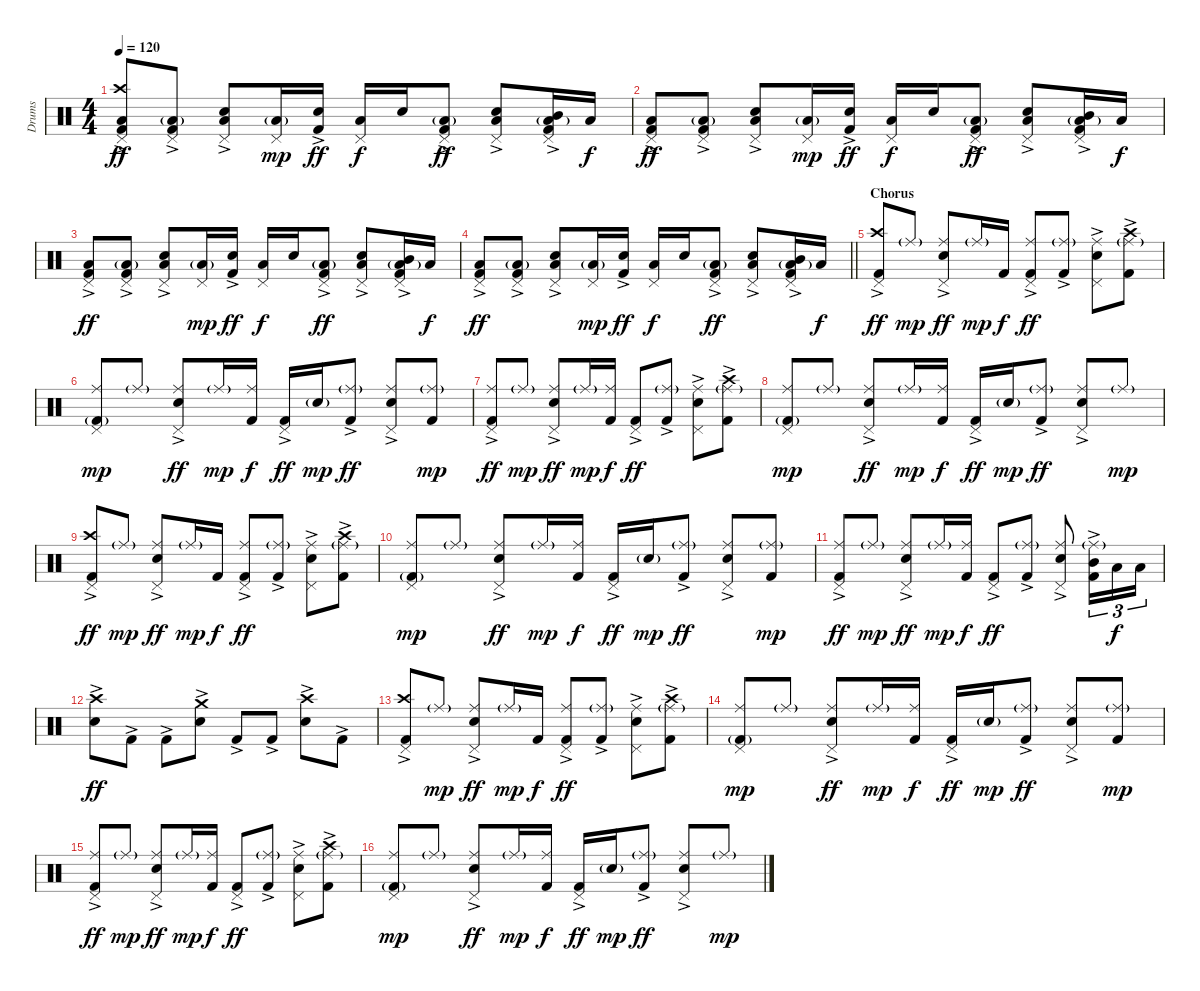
\track ("Drums" "Drums") {instrument percussion}
\staff {score}
\articulation defaults
\ts (4 4)
\tempo 120
\clef neutral
\ks c
("Pedal Hi-Hat (hit)" "Crash high (hit)" "Low Floor Tom (hit)" "Kick (hit) 2"{ac}).8{dy ff} ("Pedal Hi-Hat (hit)" "Low Floor Tom (hit)"{g} "Kick (hit) 2"{ac}).8 ("Pedal Hi-Hat (hit)" "Snare (hit) 2"{ac} "Low Floor Tom (hit)").8 ("Pedal Hi-Hat (hit)" "Low Floor Tom (hit)"{g}).16{dy mp} ("Snare (hit) 2" "Kick (hit) 2"{ac}).16{dy ff} ("Pedal Hi-Hat (hit)" "Low Floor Tom (hit)").16{dy f} "Snare (hit) 2".16 ("Pedal Hi-Hat (hit)" "Low Floor Tom (hit)"{g} "Kick (hit) 2"{ac}).8{dy ff} ("Pedal Hi-Hat (hit)" "Snare (hit) 2"{ac} "Low Floor Tom (hit)").8 ("Pedal Hi-Hat (hit)" "Mid Tom (hit)" "Low Floor Tom (hit)"{g} "Kick (hit) 2"{ac}).16 "Low Tom (hit)".16{dy f} |
("Pedal Hi-Hat (hit)" "Low Floor Tom (hit)" "Kick (hit) 2"{ac}).8{dy ff} ("Pedal Hi-Hat (hit)" "Low Floor Tom (hit)"{g} "Kick (hit) 2"{ac}).8 ("Pedal Hi-Hat (hit)" "Snare (hit) 2"{ac} "Low Floor Tom (hit)").8 ("Pedal Hi-Hat (hit)" "Low Floor Tom (hit)"{g}).16{dy mp} ("Snare (hit) 2" "Kick (hit) 2"{ac}).16{dy ff} ("Pedal Hi-Hat (hit)" "Low Floor Tom (hit)").16{dy f} "Snare (hit) 2".16 ("Pedal Hi-Hat (hit)" "Low Floor Tom (hit)"{g} "Kick (hit) 2"{ac}).8{dy ff} ("Pedal Hi-Hat (hit)" "Snare (hit) 2"{ac} "Low Floor Tom (hit)").8 ("Pedal Hi-Hat (hit)" "Mid Tom (hit)" "Low Floor Tom (hit)"{g} "Kick (hit) 2"{ac}).16 "Low Tom (hit)".16{dy f} |
("Pedal Hi-Hat (hit)" "Low Floor Tom (hit)" "Kick (hit) 2"{ac}).8{dy ff} ("Pedal Hi-Hat (hit)" "Low Floor Tom (hit)"{g} "Kick (hit) 2"{ac}).8 ("Pedal Hi-Hat (hit)" "Snare (hit) 2"{ac} "Low Floor Tom (hit)").8 ("Pedal Hi-Hat (hit)" "Low Floor Tom (hit)"{g}).16{dy mp} ("Snare (hit) 2" "Kick (hit) 2"{ac}).16{dy ff} ("Pedal Hi-Hat (hit)" "Low Floor Tom (hit)").16{dy f} "Snare (hit) 2".16 ("Pedal Hi-Hat (hit)" "Low Floor Tom (hit)"{g} "Kick (hit) 2"{ac}).8{dy ff} ("Pedal Hi-Hat (hit)" "Snare (hit) 2"{ac} "Low Floor Tom (hit)").8 ("Pedal Hi-Hat (hit)" "Mid Tom (hit)" "Low Floor Tom (hit)"{g} "Kick (hit) 2"{ac}).16 "Low Tom (hit)".16{dy f} |
\barLineRight lightlight
("Pedal Hi-Hat (hit)" "Low Floor Tom (hit)" "Kick (hit) 2"{ac}).8{dy ff} ("Pedal Hi-Hat (hit)" "Low Floor Tom (hit)"{g} "Kick (hit) 2"{ac}).8 ("Pedal Hi-Hat (hit)" "Snare (hit) 2"{ac} "Low Floor Tom (hit)").8 ("Pedal Hi-Hat (hit)" "Low Floor Tom (hit)"{g}).16{dy mp} ("Snare (hit) 2" "Kick (hit) 2"{ac}).16{dy ff} ("Pedal Hi-Hat (hit)" "Low Floor Tom (hit)").16{dy f} "Snare (hit) 2".16 ("Pedal Hi-Hat (hit)" "Low Floor Tom (hit)"{g} "Kick (hit) 2"{ac}).8{dy ff} ("Pedal Hi-Hat (hit)" "Snare (hit) 2"{ac} "Low Floor Tom (hit)").8 ("Pedal Hi-Hat (hit)" "Mid Tom (hit)" "Low Floor Tom (hit)"{g} "Kick (hit) 2"{ac}).16 "Low Tom (hit)".16{dy f} |
\section ("" "Chorus")
("Crash high (hit)" "Pedal Hi-Hat (hit)" "Kick (hit) 2"{ac}).8{dy ff} "Ride (middle)"{g}.8{dy mp} ("Ride (middle)" "Pedal Hi-Hat (hit)" "Snare (hit) 2"{ac}).8{dy ff} "Ride (middle)"{g}.16{dy mp} "Kick (hit) 2".16{dy f} ("Ride (middle)" "Pedal Hi-Hat (hit)" "Kick (hit) 2"{ac}).8{dy ff} ("Ride (middle)"{g} "Kick (hit) 2"{ac}).8 ("Ride (middle)" "Pedal Hi-Hat (hit)" "Snare (hit) 2"{ac}).8 ("Ride (middle)"{g} "Crash high (hit)" "Kick (hit) 2"{ac}).8 |
("Ride (middle)" "Pedal Hi-Hat (hit)" "Kick (hit) 2"{g}).8{dy mp} "Ride (middle)"{g}.8 ("Ride (middle)" "Pedal Hi-Hat (hit)" "Snare (hit) 2"{ac}).8{dy ff} "Ride (middle)"{g}.16{dy mp} ("Ride (middle)" "Kick (hit) 2").16{dy f} ("Pedal Hi-Hat (hit)" "Kick (hit) 2"{ac}).16{dy ff} "Snare (hit) 2"{g}.16{dy mp} ("Ride (middle)"{g} "Kick (hit) 2"{ac}).8{dy ff} ("Ride (middle)" "Pedal Hi-Hat (hit)" "Snare (hit) 2"{ac}).8 ("Ride (middle)"{g} "Kick (hit) 2").8{dy mp} |
("Ride (middle)" "Pedal Hi-Hat (hit)" "Kick (hit) 2"{ac}).8{dy ff} "Ride (middle)"{g}.8{dy mp} ("Ride (middle)" "Pedal Hi-Hat (hit)" "Snare (hit) 2"{ac}).8{dy ff} "Ride (middle)"{g}.16{dy mp} ("Ride (middle)" "Kick (hit) 2").16{dy f} ("Pedal Hi-Hat (hit)" "Kick (hit) 2"{ac}).8{dy ff} ("Ride (middle)"{g} "Kick (hit) 2"{ac}).8 ("Ride (middle)" "Pedal Hi-Hat (hit)" "Snare (hit) 2"{ac}).8 ("Ride (middle)"{g} "Crash high (hit)" "Kick (hit) 2"{ac}).8 |
("Ride (middle)" "Pedal Hi-Hat (hit)" "Kick (hit) 2"{g}).8{dy mp} "Ride (middle)"{g}.8 ("Ride (middle)" "Pedal Hi-Hat (hit)" "Snare (hit) 2"{ac}).8{dy ff} "Ride (middle)"{g}.16{dy mp} ("Ride (middle)" "Kick (hit) 2").16{dy f} ("Pedal Hi-Hat (hit)" "Kick (hit) 2"{ac}).16{dy ff} "Snare (hit) 2"{g}.16{dy mp} ("Ride (middle)"{g} "Kick (hit) 2"{ac}).8{dy ff} ("Ride (middle)" "Pedal Hi-Hat (hit)" "Snare (hit) 2"{ac}).8 "Ride (middle)"{g}.8{dy mp} |
("Crash high (hit)" "Pedal Hi-Hat (hit)" "Kick (hit) 2"{ac}).8{dy ff} "Ride (middle)"{g}.8{dy mp} ("Ride (middle)" "Pedal Hi-Hat (hit)" "Snare (hit) 2"{ac}).8{dy ff} "Ride (middle)"{g}.16{dy mp} "Kick (hit) 2".16{dy f} ("Ride (middle)" "Pedal Hi-Hat (hit)" "Kick (hit) 2"{ac}).8{dy ff} ("Ride (middle)"{g} "Kick (hit) 2"{ac}).8 ("Ride (middle)" "Pedal Hi-Hat (hit)" "Snare (hit) 2"{ac}).8 ("Ride (middle)"{g} "Crash high (hit)" "Kick (hit) 2"{ac}).8 |
("Ride (middle)" "Pedal Hi-Hat (hit)" "Kick (hit) 2"{g}).8{dy mp} "Ride (middle)"{g}.8 ("Ride (middle)" "Pedal Hi-Hat (hit)" "Snare (hit) 2"{ac}).8{dy ff} "Ride (middle)"{g}.16{dy mp} ("Ride (middle)" "Kick (hit) 2").16{dy f} ("Pedal Hi-Hat (hit)" "Kick (hit) 2"{ac}).16{dy ff} "Snare (hit) 2"{g}.16{dy mp} ("Ride (middle)"{g} "Kick (hit) 2"{ac}).8{dy ff} ("Ride (middle)" "Pedal Hi-Hat (hit)" "Snare (hit) 2"{ac}).8 ("Ride (middle)"{g} "Kick (hit) 2").8{dy mp} |
("Ride (middle)" "Pedal Hi-Hat (hit)" "Kick (hit) 2"{ac}).8{dy ff} "Ride (middle)"{g}.8{dy mp} ("Ride (middle)" "Pedal Hi-Hat (hit)" "Snare (hit) 2"{ac}).8{dy ff} "Ride (middle)"{g}.16{dy mp} ("Ride (middle)" "Kick (hit) 2").16{dy f} ("Pedal Hi-Hat (hit)" "Kick (hit) 2"{ac}).8{dy ff} ("Ride (middle)"{g} "Kick (hit) 2"{ac}).8 ("Ride (middle)" "Pedal Hi-Hat (hit)" "Snare (hit) 2"{ac}).8 ("Ride (middle)"{g} "Mid Tom (hit)" "Kick (hit) 2"{ac}).16{tu (3 2)} "Low Tom (hit)".16{tu (3 2) dy f} "Low Floor Tom (hit)".16{tu (3 2)} |
("Crash high (hit)" "Snare (hit) 2"{ac}).8{dy ff} "Kick (hit) 2"{ac}.8 "Kick (hit) 2"{ac}.8 ("Crash medium (hit)" "Snare (hit) 2"{ac}).8 "Kick (hit) 2"{ac}.8 "Kick (hit) 2"{ac}.8 ("Crash high (hit)" "Snare (hit) 2"{ac}).8 "Kick (hit) 2"{ac}.8 |
("Crash high (hit)" "Pedal Hi-Hat (hit)" "Kick (hit) 2"{ac}).8 "Ride (middle)"{g}.8{dy mp} ("Ride (middle)" "Pedal Hi-Hat (hit)" "Snare (hit) 2"{ac}).8{dy ff} "Ride (middle)"{g}.16{dy mp} "Kick (hit) 2".16{dy f} ("Ride (middle)" "Pedal Hi-Hat (hit)" "Kick (hit) 2"{ac}).8{dy ff} ("Ride (middle)"{g} "Kick (hit) 2"{ac}).8 ("Ride (middle)" "Pedal Hi-Hat (hit)" "Snare (hit) 2"{ac}).8 ("Ride (middle)"{g} "Crash high (hit)" "Kick (hit) 2"{ac}).8 |
("Ride (middle)" "Pedal Hi-Hat (hit)" "Kick (hit) 2"{g}).8{dy mp} "Ride (middle)"{g}.8 ("Ride (middle)" "Pedal Hi-Hat (hit)" "Snare (hit) 2"{ac}).8{dy ff} "Ride (middle)"{g}.16{dy mp} ("Ride (middle)" "Kick (hit) 2").16{dy f} ("Pedal Hi-Hat (hit)" "Kick (hit) 2"{ac}).16{dy ff} "Snare (hit) 2"{g}.16{dy mp} ("Ride (middle)"{g} "Kick (hit) 2"{ac}).8{dy ff} ("Ride (middle)" "Pedal Hi-Hat (hit)" "Snare (hit) 2"{ac}).8 ("Ride (middle)"{g} "Kick (hit) 2").8{dy mp} |
("Ride (middle)" "Pedal Hi-Hat (hit)" "Kick (hit) 2"{ac}).8{dy ff} "Ride (middle)"{g}.8{dy mp} ("Ride (middle)" "Pedal Hi-Hat (hit)" "Snare (hit) 2"{ac}).8{dy ff} "Ride (middle)"{g}.16{dy mp} ("Ride (middle)" "Kick (hit) 2").16{dy f} ("Pedal Hi-Hat (hit)" "Kick (hit) 2"{ac}).8{dy ff} ("Ride (middle)"{g} "Kick (hit) 2"{ac}).8 ("Ride (middle)" "Pedal Hi-Hat (hit)" "Snare (hit) 2"{ac}).8 ("Ride (middle)"{g} "Crash high (hit)" "Kick (hit) 2"{ac}).8 |
("Ride (middle)" "Pedal Hi-Hat (hit)" "Kick (hit) 2"{g}).8{dy mp} "Ride (middle)"{g}.8 ("Ride (middle)" "Pedal Hi-Hat (hit)" "Snare (hit) 2"{ac}).8{dy ff} "Ride (middle)"{g}.16{dy mp} ("Ride (middle)" "Kick (hit) 2").16{dy f} ("Pedal Hi-Hat (hit)" "Kick (hit) 2"{ac}).16{dy ff} "Snare (hit) 2"{g}.16{dy mp} ("Ride (middle)"{g} "Kick (hit) 2"{ac}).8{dy ff} ("Ride (middle)" "Pedal Hi-Hat (hit)" "Snare (hit) 2"{ac}).8 "Ride (middle)"{g}.8{dy mp}
